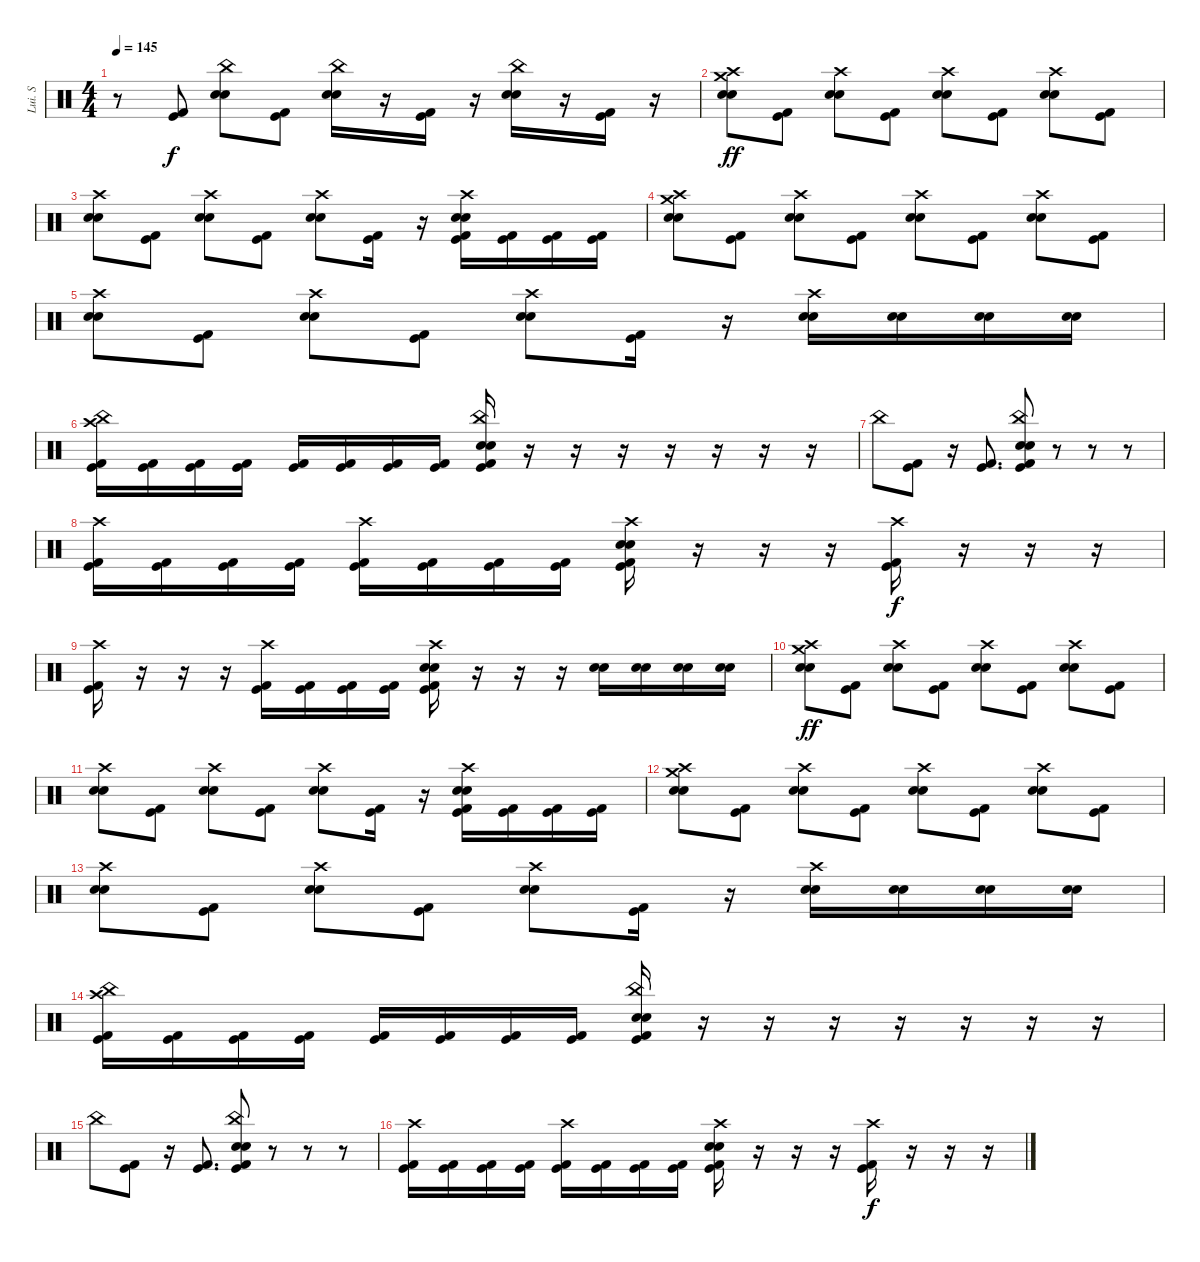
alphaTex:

\track ("Lui. S" "Lui. S") {instrument percussion}
\staff {score}
\articulation defaults
\ts (4 4)
\tempo 145
\clef neutral
\ks c
r.8{dy f} ("Kick (hit)" "Kick (hit) 2").8 ("China (hit)" "Electric Snare (hit)" "Snare (hit) 2").8 ("Kick (hit)" "Kick (hit) 2").8 ("China (hit)" "Electric Snare (hit)" "Snare (hit) 2").16 r.16 ("Kick (hit)" "Kick (hit) 2").16 r.16 ("China (hit)" "Electric Snare (hit)" "Snare (hit) 2").16 r.16 ("Kick (hit)" "Kick (hit) 2").16 r.16 |
("Crash high (hit)" "Crash medium (hit)" "Snare (hit) 2" "Electric Snare (hit)").8{dy ff} ("Kick (hit)" "Kick (hit) 2").8 ("Crash high (hit)" "Snare (hit) 2" "Electric Snare (hit)").8 ("Kick (hit)" "Kick (hit) 2").8 ("Crash high (hit)" "Snare (hit) 2" "Electric Snare (hit)").8 ("Kick (hit)" "Kick (hit) 2").8 ("Crash high (hit)" "Snare (hit) 2" "Electric Snare (hit)").8 ("Kick (hit)" "Kick (hit) 2").8 |
("Crash high (hit)" "Snare (hit) 2" "Electric Snare (hit)").8 ("Kick (hit)" "Kick (hit) 2").8 ("Crash high (hit)" "Snare (hit) 2" "Electric Snare (hit)").8 ("Kick (hit)" "Kick (hit) 2").8 ("Crash high (hit)" "Snare (hit) 2" "Electric Snare (hit)").8 ("Kick (hit)" "Kick (hit) 2").16 r.16 ("Crash high (hit)" "Electric Snare (hit)" "Snare (hit) 2" "Kick (hit) 2" "Kick (hit)").16 ("Kick (hit) 2" "Kick (hit)").16 ("Kick (hit) 2" "Kick (hit)").16 ("Kick (hit) 2" "Kick (hit)").16 |
("Crash high (hit)" "Crash medium (hit)" "Snare (hit) 2" "Electric Snare (hit)").8 ("Kick (hit)" "Kick (hit) 2").8 ("Crash high (hit)" "Snare (hit) 2" "Electric Snare (hit)").8 ("Kick (hit)" "Kick (hit) 2").8 ("Crash high (hit)" "Snare (hit) 2" "Electric Snare (hit)").8 ("Kick (hit)" "Kick (hit) 2").8 ("Crash high (hit)" "Snare (hit) 2" "Electric Snare (hit)").8 ("Kick (hit)" "Kick (hit) 2").8 |
("Crash high (hit)" "Snare (hit) 2" "Electric Snare (hit)").8 ("Kick (hit)" "Kick (hit) 2").8 ("Crash high (hit)" "Snare (hit) 2" "Electric Snare (hit)").8 ("Kick (hit)" "Kick (hit) 2").8 ("Crash high (hit)" "Snare (hit) 2" "Electric Snare (hit)").8 ("Kick (hit)" "Kick (hit) 2").16 r.16 ("Crash high (hit)" "Electric Snare (hit)" "Snare (hit) 2").16 ("Electric Snare (hit)" "Snare (hit) 2").16 ("Electric Snare (hit)" "Snare (hit) 2").16 ("Electric Snare (hit)" "Snare (hit) 2").16 |
("China (hit)" "Crash high (hit)" "Kick (hit)" "Kick (hit) 2").16 ("Kick (hit)" "Kick (hit) 2").16 ("Kick (hit)" "Kick (hit) 2").16 ("Kick (hit)" "Kick (hit) 2").16 ("Kick (hit)" "Kick (hit) 2").16 ("Kick (hit)" "Kick (hit) 2").16 ("Kick (hit)" "Kick (hit) 2").16 ("Kick (hit)" "Kick (hit) 2").16 ("China (hit)" "Electric Snare (hit)" "Snare (hit) 2" "Kick (hit)" "Kick (hit) 2").16 r.16 r.16 r.16 r.16 r.16 r.16 r.16 |
"China (hit)".8 ("Kick (hit)" "Kick (hit) 2").8 r.16 ("Kick (hit)" "Kick (hit) 2").8{d} ("China (hit)" "Electric Snare (hit)" "Snare (hit) 2" "Kick (hit) 2" "Kick (hit)").8 r.8 r.8 r.8 |
("Crash high (hit)" "Kick (hit)" "Kick (hit) 2").16 ("Kick (hit)" "Kick (hit) 2").16 ("Kick (hit)" "Kick (hit) 2").16 ("Kick (hit)" "Kick (hit) 2").16 ("Crash high (hit)" "Kick (hit)" "Kick (hit) 2").16 ("Kick (hit)" "Kick (hit) 2").16 ("Kick (hit)" "Kick (hit) 2").16 ("Kick (hit)" "Kick (hit) 2").16 ("Crash high (hit)" "Electric Snare (hit)" "Snare (hit) 2" "Kick (hit)" "Kick (hit) 2").16 r.16 r.16 r.16 ("Crash high (hit)" "Kick (hit) 2" "Kick (hit)").16{dy f} r.16 r.16 r.16 |
("Crash high (hit)" "Kick (hit) 2" "Kick (hit)").16 r.16 r.16 r.16 ("Crash high (hit)" "Kick (hit) 2" "Kick (hit)").16 ("Kick (hit) 2" "Kick (hit)").16 ("Kick (hit) 2" "Kick (hit)").16 ("Kick (hit) 2" "Kick (hit)").16 ("Crash high (hit)" "Electric Snare (hit)" "Snare (hit) 2" "Kick (hit) 2" "Kick (hit)").16 r.16 r.16 r.16 ("Snare (hit) 2" "Electric Snare (hit)").16 ("Snare (hit) 2" "Electric Snare (hit)").16 ("Snare (hit) 2" "Electric Snare (hit)").16 ("Snare (hit) 2" "Electric Snare (hit)").16 |
("Crash high (hit)" "Crash medium (hit)" "Snare (hit) 2" "Electric Snare (hit)").8{dy ff} ("Kick (hit)" "Kick (hit) 2").8 ("Crash high (hit)" "Snare (hit) 2" "Electric Snare (hit)").8 ("Kick (hit)" "Kick (hit) 2").8 ("Crash high (hit)" "Snare (hit) 2" "Electric Snare (hit)").8 ("Kick (hit)" "Kick (hit) 2").8 ("Crash high (hit)" "Snare (hit) 2" "Electric Snare (hit)").8 ("Kick (hit)" "Kick (hit) 2").8 |
("Crash high (hit)" "Snare (hit) 2" "Electric Snare (hit)").8 ("Kick (hit)" "Kick (hit) 2").8 ("Crash high (hit)" "Snare (hit) 2" "Electric Snare (hit)").8 ("Kick (hit)" "Kick (hit) 2").8 ("Crash high (hit)" "Snare (hit) 2" "Electric Snare (hit)").8 ("Kick (hit)" "Kick (hit) 2").16 r.16 ("Crash high (hit)" "Electric Snare (hit)" "Snare (hit) 2" "Kick (hit) 2" "Kick (hit)").16 ("Kick (hit) 2" "Kick (hit)").16 ("Kick (hit) 2" "Kick (hit)").16 ("Kick (hit) 2" "Kick (hit)").16 |
("Crash high (hit)" "Crash medium (hit)" "Snare (hit) 2" "Electric Snare (hit)").8 ("Kick (hit)" "Kick (hit) 2").8 ("Crash high (hit)" "Snare (hit) 2" "Electric Snare (hit)").8 ("Kick (hit)" "Kick (hit) 2").8 ("Crash high (hit)" "Snare (hit) 2" "Electric Snare (hit)").8 ("Kick (hit)" "Kick (hit) 2").8 ("Crash high (hit)" "Snare (hit) 2" "Electric Snare (hit)").8 ("Kick (hit)" "Kick (hit) 2").8 |
("Crash high (hit)" "Snare (hit) 2" "Electric Snare (hit)").8 ("Kick (hit)" "Kick (hit) 2").8 ("Crash high (hit)" "Snare (hit) 2" "Electric Snare (hit)").8 ("Kick (hit)" "Kick (hit) 2").8 ("Crash high (hit)" "Snare (hit) 2" "Electric Snare (hit)").8 ("Kick (hit)" "Kick (hit) 2").16 r.16 ("Crash high (hit)" "Electric Snare (hit)" "Snare (hit) 2").16 ("Electric Snare (hit)" "Snare (hit) 2").16 ("Electric Snare (hit)" "Snare (hit) 2").16 ("Electric Snare (hit)" "Snare (hit) 2").16 |
("China (hit)" "Crash high (hit)" "Kick (hit)" "Kick (hit) 2").16 ("Kick (hit)" "Kick (hit) 2").16 ("Kick (hit)" "Kick (hit) 2").16 ("Kick (hit)" "Kick (hit) 2").16 ("Kick (hit)" "Kick (hit) 2").16 ("Kick (hit)" "Kick (hit) 2").16 ("Kick (hit)" "Kick (hit) 2").16 ("Kick (hit)" "Kick (hit) 2").16 ("China (hit)" "Electric Snare (hit)" "Snare (hit) 2" "Kick (hit)" "Kick (hit) 2").16 r.16 r.16 r.16 r.16 r.16 r.16 r.16 |
"China (hit)".8 ("Kick (hit)" "Kick (hit) 2").8 r.16 ("Kick (hit)" "Kick (hit) 2").8{d} ("China (hit)" "Electric Snare (hit)" "Snare (hit) 2" "Kick (hit) 2" "Kick (hit)").8 r.8 r.8 r.8 |
("Crash high (hit)" "Kick (hit)" "Kick (hit) 2").16 ("Kick (hit)" "Kick (hit) 2").16 ("Kick (hit)" "Kick (hit) 2").16 ("Kick (hit)" "Kick (hit) 2").16 ("Crash high (hit)" "Kick (hit)" "Kick (hit) 2").16 ("Kick (hit)" "Kick (hit) 2").16 ("Kick (hit)" "Kick (hit) 2").16 ("Kick (hit)" "Kick (hit) 2").16 ("Crash high (hit)" "Electric Snare (hit)" "Snare (hit) 2" "Kick (hit)" "Kick (hit) 2").16 r.16 r.16 r.16 ("Crash high (hit)" "Kick (hit) 2" "Kick (hit)").16{dy f} r.16 r.16 r.16
